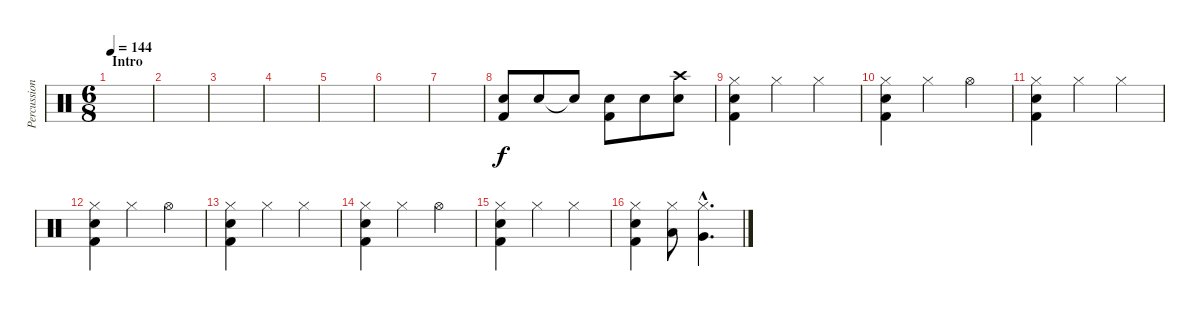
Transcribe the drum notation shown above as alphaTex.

\track ("Percussion" "Percussion") {instrument percussion}
\staff {score}
\articulation defaults
\ts (6 8)
\section ("" "Intro")
\tempo 144
\clef neutral
\ks c
|
|
|
|
|
|
|
("Electric Snare (hit)" "Kick (hit) 2").8 "Electric Snare (hit)".8 "Snare (hit)"{t}.8 ("Electric Snare (hit)" "Kick (hit) 2").8 "Electric Snare (hit)".8 ("Crash high (hit)" "Electric Snare (hit)").8 |
("Hi-Hat (closed)" "Electric Snare (hit)" "Kick (hit) 2").4 "Hi-Hat (closed)".4 "Hi-Hat (closed)".4 |
("Hi-Hat (closed)" "Electric Snare (hit)" "Kick (hit) 2").4 "Hi-Hat (closed)".4 "Hi-Hat (open)".4 |
("Hi-Hat (closed)" "Electric Snare (hit)" "Kick (hit) 2").4 "Hi-Hat (closed)".4 "Hi-Hat (closed)".4 |
("Hi-Hat (closed)" "Electric Snare (hit)" "Kick (hit) 2").4 "Hi-Hat (closed)".4 "Hi-Hat (open)".4 |
("Hi-Hat (closed)" "Electric Snare (hit)" "Kick (hit) 2").4 "Hi-Hat (closed)".4 "Hi-Hat (closed)".4 |
("Hi-Hat (closed)" "Electric Snare (hit)" "Kick (hit) 2").4 "Hi-Hat (closed)".4 "Hi-Hat (open)".4 |
("Hi-Hat (closed)" "Electric Snare (hit)" "Kick (hit) 2").4 "Hi-Hat (closed)".4 "Hi-Hat (closed)".4 |
("Hi-Hat (closed)" "Electric Snare (hit)" "Kick (hit) 2").4 ("Low Tom (hit)" "Hi-Hat (closed)").8 ("Very Low Tom (hit)"{hac} "Hi-Hat (closed)"{hac}).4{d}
